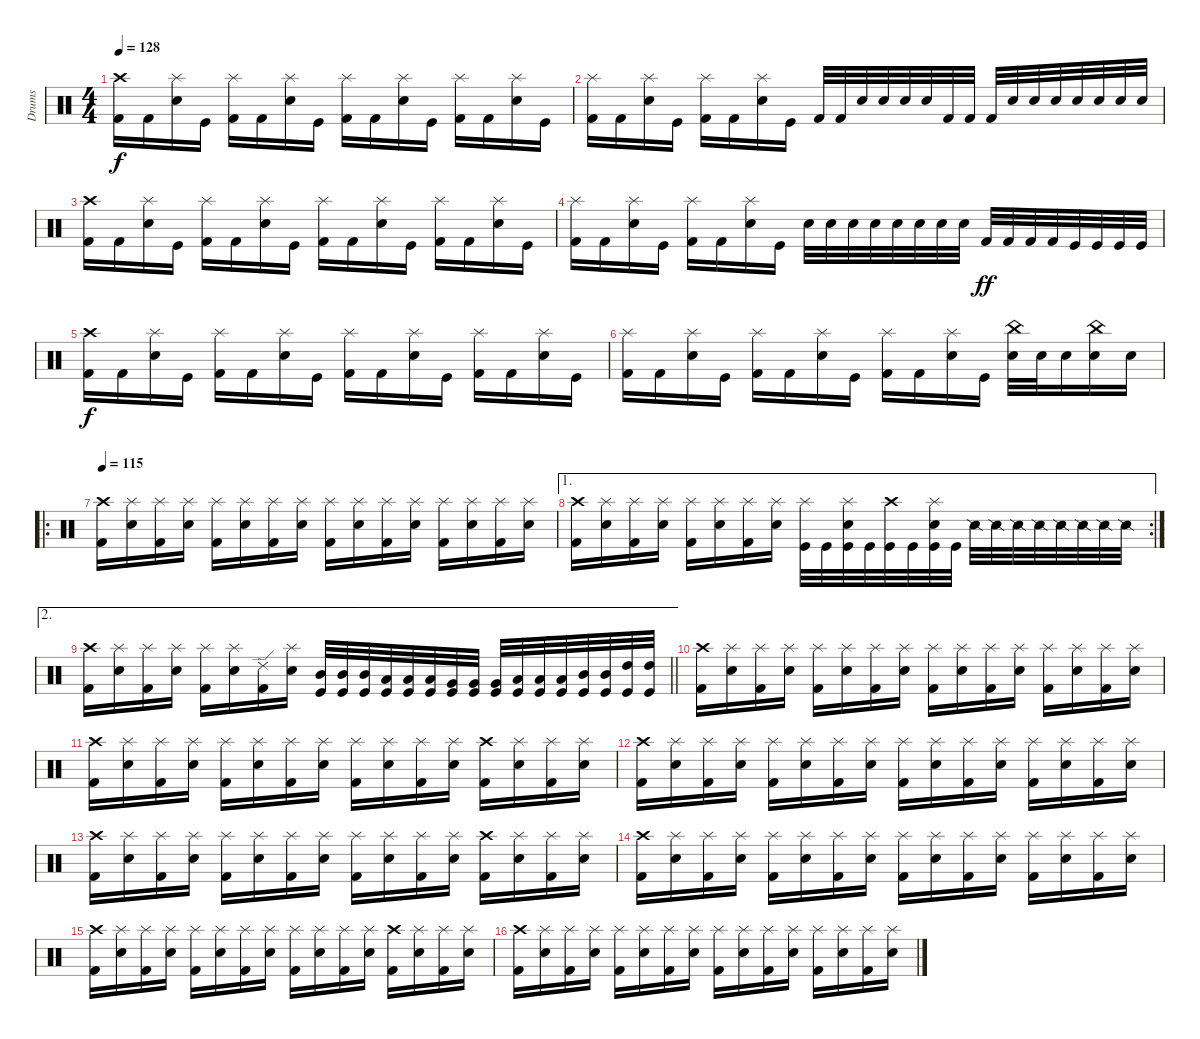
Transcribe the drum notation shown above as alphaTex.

\track ("Drums" "Drums") {instrument percussion}
\staff {score}
\articulation defaults
\ts (4 4)
\tempo 128
\clef neutral
\ks c
("Crash high (hit)" "Kick (hit) 2").16{dy f} "Kick (hit) 2".16 ("Splash (hit)" "Electric Snare (hit)").16 "Kick (hit)".16 ("Splash (hit)" "Kick (hit) 2").16 "Kick (hit) 2".16 ("Splash (hit)" "Electric Snare (hit)").16 "Kick (hit)".16 ("Splash (hit)" "Kick (hit) 2").16 "Kick (hit) 2".16 ("Splash (hit)" "Electric Snare (hit)").16 "Kick (hit)".16 ("Splash (hit)" "Kick (hit) 2").16 "Kick (hit) 2".16 ("Splash (hit)" "Electric Snare (hit)").16 "Kick (hit)".16 |
("Splash (hit)" "Kick (hit) 2").16 "Kick (hit) 2".16 ("Splash (hit)" "Electric Snare (hit)").16 "Kick (hit)".16 ("Splash (hit)" "Kick (hit) 2").16 "Kick (hit) 2".16 ("Splash (hit)" "Electric Snare (hit)").16 "Kick (hit)".16 "Kick (hit) 2".32 "Kick (hit) 2".32 "Electric Snare (hit)".32 "Electric Snare (hit)".32 "Snare (hit) 2".32 "Snare (hit) 2".32 "Kick (hit) 2".32 "Kick (hit) 2".32 "Kick (hit) 2".32 "Electric Snare (hit)".32 "Electric Snare (hit)".32 "Electric Snare (hit)".32 "Snare (hit) 2".32 "Snare (hit) 2".32 "Snare (hit) 2".32 "Snare (hit) 2".32 |
("Crash high (hit)" "Kick (hit) 2").16 "Kick (hit) 2".16 ("Splash (hit)" "Electric Snare (hit)").16 "Kick (hit)".16 ("Splash (hit)" "Kick (hit) 2").16 "Kick (hit) 2".16 ("Splash (hit)" "Electric Snare (hit)").16 "Kick (hit)".16 ("Splash (hit)" "Kick (hit) 2").16 "Kick (hit) 2".16 ("Splash (hit)" "Electric Snare (hit)").16 "Kick (hit)".16 ("Splash (hit)" "Kick (hit) 2").16 "Kick (hit) 2".16 ("Splash (hit)" "Electric Snare (hit)").16 "Kick (hit)".16 |
("Splash (hit)" "Kick (hit) 2").16 "Kick (hit) 2".16 ("Splash (hit)" "Electric Snare (hit)").16 "Kick (hit)".16 ("Splash (hit)" "Kick (hit) 2").16 "Kick (hit) 2".16 ("Splash (hit)" "Electric Snare (hit)").16 "Kick (hit)".16 "Electric Snare (hit)".32 "Electric Snare (hit)".32 "Electric Snare (hit)".32 "Electric Snare (hit)".32 "Snare (hit) 2".32 "Snare (hit) 2".32 "Snare (hit) 2".32 "Snare (hit) 2".32 "Kick (hit) 2".32{dy ff} "Kick (hit) 2".32 "Kick (hit) 2".32 "Kick (hit) 2".32 "Kick (hit)".32 "Kick (hit)".32 "Kick (hit)".32 "Kick (hit)".32 |
("Crash high (hit)" "Kick (hit) 2").16{dy f} "Kick (hit) 2".16 ("Splash (hit)" "Electric Snare (hit)").16 "Kick (hit)".16 ("Splash (hit)" "Kick (hit) 2").16 "Kick (hit) 2".16 ("Splash (hit)" "Electric Snare (hit)").16 "Kick (hit)".16 ("Splash (hit)" "Kick (hit) 2").16 "Kick (hit) 2".16 ("Splash (hit)" "Electric Snare (hit)").16 "Kick (hit)".16 ("Splash (hit)" "Kick (hit) 2").16 "Kick (hit) 2".16 ("Splash (hit)" "Electric Snare (hit)").16 "Kick (hit)".16 |
("Splash (hit)" "Kick (hit) 2").16 "Kick (hit) 2".16 ("Splash (hit)" "Electric Snare (hit)").16 "Kick (hit)".16 ("Splash (hit)" "Kick (hit) 2").16 "Kick (hit) 2".16 ("Splash (hit)" "Electric Snare (hit)").16 "Kick (hit)".16 ("Splash (hit)" "Kick (hit) 2").16 "Kick (hit) 2".16 ("Splash (hit)" "Electric Snare (hit)").16 "Kick (hit)".16 ("China (hit)" "Electric Snare (hit)").32 "Electric Snare (hit)".32 "Snare (hit) 2".16 ("China (hit)" "Snare (hit) 2").16 "Snare (hit) 2".16 |
\ro
\tempo 115
("Crash high (hit)" "Kick (hit) 2").16 ("Splash (hit)" "Electric Snare (hit)").16 ("Splash (hit)" "Kick (hit) 2").16 ("Splash (hit)" "Electric Snare (hit)").16 ("Splash (hit)" "Kick (hit) 2").16 ("Splash (hit)" "Electric Snare (hit)").16 ("Splash (hit)" "Kick (hit) 2").16 ("Splash (hit)" "Electric Snare (hit)").16 ("Splash (hit)" "Kick (hit) 2").16 ("Splash (hit)" "Electric Snare (hit)").16 ("Splash (hit)" "Kick (hit) 2").16 ("Splash (hit)" "Electric Snare (hit)").16 ("Splash (hit)" "Kick (hit) 2").16 ("Splash (hit)" "Electric Snare (hit)").16 ("Splash (hit)" "Kick (hit) 2").16 ("Splash (hit)" "Electric Snare (hit)").16 |
\ae 1
\rc 2
("Crash high (hit)" "Kick (hit) 2").16 ("Splash (hit)" "Electric Snare (hit)").16 ("Splash (hit)" "Kick (hit) 2").16 ("Splash (hit)" "Electric Snare (hit)").16 ("Splash (hit)" "Kick (hit) 2").16 ("Splash (hit)" "Electric Snare (hit)").16 ("Splash (hit)" "Kick (hit) 2").16 ("Splash (hit)" "Electric Snare (hit)").16 ("Splash (hit)" "Kick (hit)").32 "Kick (hit)".32 ("Splash (hit)" "Electric Snare (hit)" "Kick (hit)").32 "Kick (hit)".32 ("Crash high (hit)" "Kick (hit)").32 "Kick (hit)".32 ("Splash (hit)" "Electric Snare (hit)" "Kick (hit)").32 "Kick (hit)".32 "Snare (side stick) 2".32 "Snare (side stick) 2".32 "Snare (side stick) 2".32 "Snare (side stick) 2".32 "Snare (side stick) 2".32 "Snare (side stick) 2".32 "Snare (side stick) 2".32 "Snare (side stick) 2".32 |
\ae 2
\barLineRight lightlight
("Crash high (hit)" "Kick (hit) 2").16 ("Splash (hit)" "Electric Snare (hit)").16 ("Splash (hit)" "Kick (hit) 2").16 ("Splash (hit)" "Electric Snare (hit)").16 ("Splash (hit)" "Kick (hit) 2").16 ("Splash (hit)" "Electric Snare (hit)").16 ("Ride (edge) 2" "Kick (hit) 2").16 ("Splash (hit)" "Electric Snare (hit)").16 ("Mid Tom (hit)" "Kick (hit)").32 ("Mid Tom (hit)" "Kick (hit)").32 ("Mid Tom (hit)" "Kick (hit)").32 ("Low Tom (hit)" "Kick (hit)").32 ("Low Tom (hit)" "Kick (hit)").32 ("Low Tom (hit)" "Kick (hit)").32 ("Very Low Tom (hit)" "Kick (hit)").32 ("Very Low Tom (hit)" "Kick (hit)").32 ("Very Low Tom (hit)" "Kick (hit)").32 ("Low Tom (hit)" "Kick (hit)").32 ("Low Tom (hit)" "Kick (hit)").32 ("Low Tom (hit)" "Kick (hit)").32 ("Mid Tom (hit)" "Kick (hit)").32 ("Mid Tom (hit)" "Kick (hit)").32 ("High Tom (hit)" "Kick (hit)").32 ("High Tom (hit)" "Kick (hit)").32 |
("Crash high (hit)" "Kick (hit) 2").16 ("Splash (hit)" "Electric Snare (hit)").16 ("Splash (hit)" "Kick (hit) 2").16 ("Splash (hit)" "Electric Snare (hit)").16 ("Splash (hit)" "Kick (hit) 2").16 ("Splash (hit)" "Electric Snare (hit)").16 ("Splash (hit)" "Kick (hit) 2").16 ("Splash (hit)" "Electric Snare (hit)").16 ("Splash (hit)" "Kick (hit) 2").16 ("Splash (hit)" "Electric Snare (hit)").16 ("Splash (hit)" "Kick (hit) 2").16 ("Splash (hit)" "Electric Snare (hit)").16 ("Splash (hit)" "Kick (hit) 2").16 ("Splash (hit)" "Electric Snare (hit)").16 ("Splash (hit)" "Kick (hit) 2").16 ("Splash (hit)" "Electric Snare (hit)").16 |
("Crash high (hit)" "Kick (hit) 2").16 ("Splash (hit)" "Electric Snare (hit)").16 ("Splash (hit)" "Kick (hit) 2").16 ("Splash (hit)" "Electric Snare (hit)").16 ("Splash (hit)" "Kick (hit) 2").16 ("Splash (hit)" "Electric Snare (hit)").16 ("Splash (hit)" "Kick (hit) 2").16 ("Splash (hit)" "Electric Snare (hit)").16 ("Splash (hit)" "Kick (hit) 2").16 ("Splash (hit)" "Electric Snare (hit)").16 ("Splash (hit)" "Kick (hit) 2").16 ("Splash (hit)" "Electric Snare (hit)").16 ("Crash high (hit)" "Kick (hit) 2").16 ("Splash (hit)" "Electric Snare (hit)").16 ("Splash (hit)" "Kick (hit) 2").16 ("Splash (hit)" "Electric Snare (hit)").16 |
("Crash high (hit)" "Kick (hit) 2").16 ("Splash (hit)" "Electric Snare (hit)").16 ("Splash (hit)" "Kick (hit) 2").16 ("Splash (hit)" "Electric Snare (hit)").16 ("Splash (hit)" "Kick (hit) 2").16 ("Splash (hit)" "Electric Snare (hit)").16 ("Splash (hit)" "Kick (hit) 2").16 ("Splash (hit)" "Electric Snare (hit)").16 ("Splash (hit)" "Kick (hit) 2").16 ("Splash (hit)" "Electric Snare (hit)").16 ("Splash (hit)" "Kick (hit) 2").16 ("Splash (hit)" "Electric Snare (hit)").16 ("Splash (hit)" "Kick (hit) 2").16 ("Splash (hit)" "Electric Snare (hit)").16 ("Splash (hit)" "Kick (hit) 2").16 ("Splash (hit)" "Electric Snare (hit)").16 |
("Crash high (hit)" "Kick (hit) 2").16 ("Splash (hit)" "Electric Snare (hit)").16 ("Splash (hit)" "Kick (hit) 2").16 ("Splash (hit)" "Electric Snare (hit)").16 ("Splash (hit)" "Kick (hit) 2").16 ("Splash (hit)" "Electric Snare (hit)").16 ("Splash (hit)" "Kick (hit) 2").16 ("Splash (hit)" "Electric Snare (hit)").16 ("Splash (hit)" "Kick (hit) 2").16 ("Splash (hit)" "Electric Snare (hit)").16 ("Splash (hit)" "Kick (hit) 2").16 ("Splash (hit)" "Electric Snare (hit)").16 ("Crash high (hit)" "Kick (hit) 2").16 ("Splash (hit)" "Electric Snare (hit)").16 ("Splash (hit)" "Kick (hit) 2").16 ("Splash (hit)" "Electric Snare (hit)").16 |
("Crash high (hit)" "Kick (hit) 2").16 ("Splash (hit)" "Electric Snare (hit)").16 ("Splash (hit)" "Kick (hit) 2").16 ("Splash (hit)" "Electric Snare (hit)").16 ("Splash (hit)" "Kick (hit) 2").16 ("Splash (hit)" "Electric Snare (hit)").16 ("Splash (hit)" "Kick (hit) 2").16 ("Splash (hit)" "Electric Snare (hit)").16 ("Splash (hit)" "Kick (hit) 2").16 ("Splash (hit)" "Electric Snare (hit)").16 ("Splash (hit)" "Kick (hit) 2").16 ("Splash (hit)" "Electric Snare (hit)").16 ("Splash (hit)" "Kick (hit) 2").16 ("Splash (hit)" "Electric Snare (hit)").16 ("Splash (hit)" "Kick (hit) 2").16 ("Splash (hit)" "Electric Snare (hit)").16 |
("Crash high (hit)" "Kick (hit) 2").16 ("Splash (hit)" "Electric Snare (hit)").16 ("Splash (hit)" "Kick (hit) 2").16 ("Splash (hit)" "Electric Snare (hit)").16 ("Splash (hit)" "Kick (hit) 2").16 ("Splash (hit)" "Electric Snare (hit)").16 ("Splash (hit)" "Kick (hit) 2").16 ("Splash (hit)" "Electric Snare (hit)").16 ("Splash (hit)" "Kick (hit) 2").16 ("Splash (hit)" "Electric Snare (hit)").16 ("Splash (hit)" "Kick (hit) 2").16 ("Splash (hit)" "Electric Snare (hit)").16 ("Crash high (hit)" "Kick (hit) 2").16 ("Splash (hit)" "Electric Snare (hit)").16 ("Splash (hit)" "Kick (hit) 2").16 ("Splash (hit)" "Electric Snare (hit)").16 |
("Crash high (hit)" "Kick (hit) 2").16 ("Splash (hit)" "Electric Snare (hit)").16 ("Splash (hit)" "Kick (hit) 2").16 ("Splash (hit)" "Electric Snare (hit)").16 ("Splash (hit)" "Kick (hit) 2").16 ("Splash (hit)" "Electric Snare (hit)").16 ("Splash (hit)" "Kick (hit) 2").16 ("Splash (hit)" "Electric Snare (hit)").16 ("Splash (hit)" "Kick (hit) 2").16 ("Splash (hit)" "Electric Snare (hit)").16 ("Splash (hit)" "Kick (hit) 2").16 ("Splash (hit)" "Electric Snare (hit)").16 ("Splash (hit)" "Kick (hit) 2").16 ("Splash (hit)" "Electric Snare (hit)").16 ("Splash (hit)" "Kick (hit) 2").16 ("Splash (hit)" "Electric Snare (hit)").16
